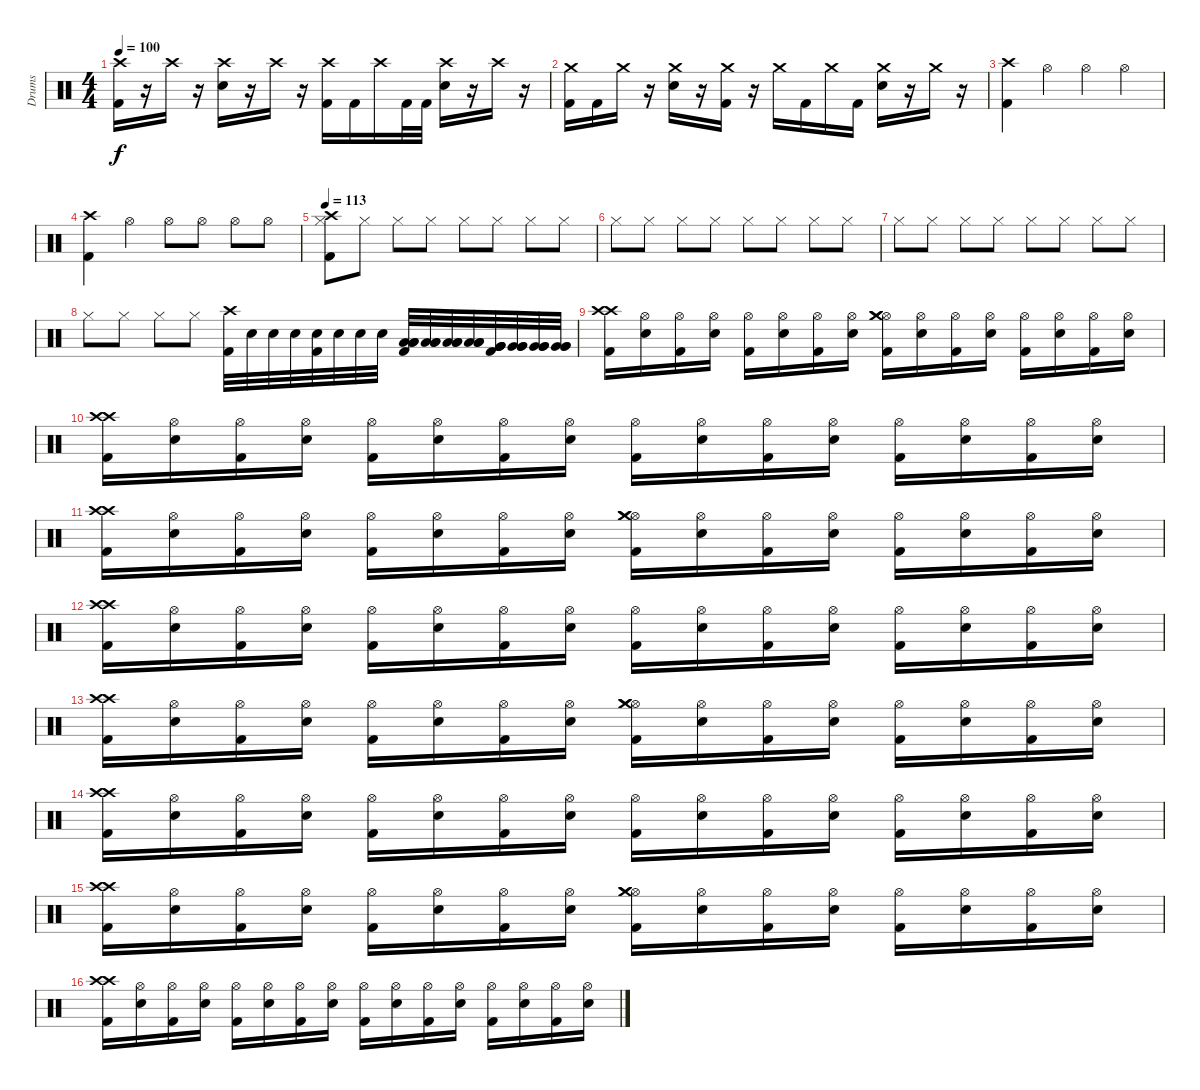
\track ("Drums" "Drums") {instrument percussion}
\staff {score}
\articulation defaults
\ts (4 4)
\tempo 100
\clef neutral
\ks c
("Crash high (hit)" "Kick (hit) 2").16{dy f} r.16 "Crash high (hit)".16 r.16 ("Crash high (hit)" "Snare (hit) 2").16 r.16 "Crash high (hit)".16 r.16 ("Crash high (hit)" "Kick (hit) 2").16 "Kick (hit) 2".16 "Crash high (hit)".16 "Kick (hit) 2".32 "Kick (hit) 2".32 ("Crash high (hit)" "Snare (hit) 2").16 r.16 "Crash high (hit)".16 r.16 |
("Crash medium (hit)" "Kick (hit) 2").16 "Kick (hit) 2".16 "Crash medium (hit)".16 r.16 ("Crash medium (hit)" "Snare (hit) 2").16 r.16 ("Crash medium (hit)" "Kick (hit) 2").16 r.16 "Crash medium (hit)".16 "Kick (hit) 2".16 "Crash medium (hit)".16 "Kick (hit) 2".16 ("Crash medium (hit)" "Snare (hit) 2").16 r.16 "Crash medium (hit)".16 r.16 |
("Kick (hit) 2" "Crash high (hit)").4 "Hi-Hat (open)".4 "Hi-Hat (open)".4 "Hi-Hat (open)".4 |
("Crash high (hit)" "Kick (hit) 2").4 "Hi-Hat (open)".4 "Hi-Hat (open)".8 "Hi-Hat (open)".8 "Hi-Hat (open)".8 "Hi-Hat (open)".8 |
\tempo 113
("Hi-Hat (closed)" "Crash high (hit)" "Kick (hit) 2").8 "Hi-Hat (closed)".8 "Hi-Hat (closed)".8 "Hi-Hat (closed)".8 "Hi-Hat (closed)".8 "Hi-Hat (closed)".8 "Hi-Hat (closed)".8 "Hi-Hat (closed)".8 |
"Hi-Hat (closed)".8 "Hi-Hat (closed)".8 "Hi-Hat (closed)".8 "Hi-Hat (closed)".8 "Hi-Hat (closed)".8 "Hi-Hat (closed)".8 "Hi-Hat (closed)".8 "Hi-Hat (closed)".8 |
"Hi-Hat (closed)".8 "Hi-Hat (closed)".8 "Hi-Hat (closed)".8 "Hi-Hat (closed)".8 "Hi-Hat (closed)".8 "Hi-Hat (closed)".8 "Hi-Hat (closed)".8 "Hi-Hat (closed)".8 |
"Hi-Hat (closed)".8 "Hi-Hat (closed)".8 "Hi-Hat (closed)".8 "Hi-Hat (closed)".8 ("Kick (hit) 2" "Crash high (hit)").32 "Snare (hit) 2".32 "Snare (hit) 2".32 "Snare (hit) 2".32 ("Snare (hit) 2" "Kick (hit) 2").32 "Snare (hit) 2".32 "Snare (hit) 2".32 "Snare (hit) 2".32 ("Low Tom (hit)" "Low Tom (hit)" "Kick (hit) 2" "Low Tom (hit)").32 ("Low Tom (hit)" "Low Tom (hit)" "Low Tom (hit)").32 ("Low Tom (hit)" "Low Tom (hit)" "Low Tom (hit)").32 ("Low Tom (hit)" "Low Tom (hit)" "Low Tom (hit)").32 ("Very Low Tom (hit)" "Very Low Tom (hit)" "Kick (hit) 2" "Very Low Tom (hit)").32 ("Very Low Tom (hit)" "Very Low Tom (hit)" "Very Low Tom (hit)").32 ("Very Low Tom (hit)" "Very Low Tom (hit)" "Very Low Tom (hit)").32 ("Very Low Tom (hit)" "Very Low Tom (hit)" "Very Low Tom (hit)").32 |
("Crash high (hit)" "Kick (hit) 2" "Crash high (hit)").16 ("Hi-Hat (open)" "Snare (hit) 2").16 ("Hi-Hat (open)" "Kick (hit) 2").16 ("Hi-Hat (open)" "Snare (hit) 2").16 ("Hi-Hat (open)" "Kick (hit) 2").16 ("Hi-Hat (open)" "Snare (hit) 2").16 ("Hi-Hat (open)" "Kick (hit) 2").16 ("Hi-Hat (open)" "Snare (hit) 2").16 ("Hi-Hat (open)" "Crash medium (hit)" "Kick (hit) 2" "Crash medium (hit)").16 ("Hi-Hat (open)" "Snare (hit) 2").16 ("Hi-Hat (open)" "Kick (hit) 2").16 ("Hi-Hat (open)" "Snare (hit) 2").16 ("Hi-Hat (open)" "Kick (hit) 2").16 ("Hi-Hat (open)" "Snare (hit) 2").16 ("Hi-Hat (open)" "Kick (hit) 2").16 ("Hi-Hat (open)" "Snare (hit) 2").16 |
("Crash high (hit)" "Kick (hit) 2" "Crash high (hit)").16 ("Hi-Hat (open)" "Snare (hit) 2").16 ("Hi-Hat (open)" "Kick (hit) 2").16 ("Hi-Hat (open)" "Snare (hit) 2").16 ("Hi-Hat (open)" "Kick (hit) 2").16 ("Hi-Hat (open)" "Snare (hit) 2").16 ("Hi-Hat (open)" "Kick (hit) 2").16 ("Hi-Hat (open)" "Snare (hit) 2").16 ("Hi-Hat (open)" "Kick (hit) 2").16 ("Hi-Hat (open)" "Snare (hit) 2").16 ("Hi-Hat (open)" "Kick (hit) 2").16 ("Hi-Hat (open)" "Snare (hit) 2").16 ("Hi-Hat (open)" "Kick (hit) 2").16 ("Hi-Hat (open)" "Snare (hit) 2").16 ("Hi-Hat (open)" "Kick (hit) 2").16 ("Hi-Hat (open)" "Snare (hit) 2").16 |
("Crash high (hit)" "Kick (hit) 2" "Crash high (hit)").16 ("Hi-Hat (open)" "Snare (hit) 2").16 ("Hi-Hat (open)" "Kick (hit) 2").16 ("Hi-Hat (open)" "Snare (hit) 2").16 ("Hi-Hat (open)" "Kick (hit) 2").16 ("Hi-Hat (open)" "Snare (hit) 2").16 ("Hi-Hat (open)" "Kick (hit) 2").16 ("Hi-Hat (open)" "Snare (hit) 2").16 ("Hi-Hat (open)" "Crash medium (hit)" "Kick (hit) 2" "Crash medium (hit)").16 ("Hi-Hat (open)" "Snare (hit) 2").16 ("Hi-Hat (open)" "Kick (hit) 2").16 ("Hi-Hat (open)" "Snare (hit) 2").16 ("Hi-Hat (open)" "Kick (hit) 2").16 ("Hi-Hat (open)" "Snare (hit) 2").16 ("Hi-Hat (open)" "Kick (hit) 2").16 ("Hi-Hat (open)" "Snare (hit) 2").16 |
("Crash high (hit)" "Kick (hit) 2" "Crash high (hit)").16 ("Hi-Hat (open)" "Snare (hit) 2").16 ("Hi-Hat (open)" "Kick (hit) 2").16 ("Hi-Hat (open)" "Snare (hit) 2").16 ("Hi-Hat (open)" "Kick (hit) 2").16 ("Hi-Hat (open)" "Snare (hit) 2").16 ("Hi-Hat (open)" "Kick (hit) 2").16 ("Hi-Hat (open)" "Snare (hit) 2").16 ("Hi-Hat (open)" "Kick (hit) 2").16 ("Hi-Hat (open)" "Snare (hit) 2").16 ("Hi-Hat (open)" "Kick (hit) 2").16 ("Hi-Hat (open)" "Snare (hit) 2").16 ("Hi-Hat (open)" "Kick (hit) 2").16 ("Hi-Hat (open)" "Snare (hit) 2").16 ("Hi-Hat (open)" "Kick (hit) 2").16 ("Hi-Hat (open)" "Snare (hit) 2").16 |
("Crash high (hit)" "Kick (hit) 2" "Crash high (hit)").16 ("Hi-Hat (open)" "Snare (hit) 2").16 ("Hi-Hat (open)" "Kick (hit) 2").16 ("Hi-Hat (open)" "Snare (hit) 2").16 ("Hi-Hat (open)" "Kick (hit) 2").16 ("Hi-Hat (open)" "Snare (hit) 2").16 ("Hi-Hat (open)" "Kick (hit) 2").16 ("Hi-Hat (open)" "Snare (hit) 2").16 ("Hi-Hat (open)" "Crash medium (hit)" "Kick (hit) 2" "Crash medium (hit)").16 ("Hi-Hat (open)" "Snare (hit) 2").16 ("Hi-Hat (open)" "Kick (hit) 2").16 ("Hi-Hat (open)" "Snare (hit) 2").16 ("Hi-Hat (open)" "Kick (hit) 2").16 ("Hi-Hat (open)" "Snare (hit) 2").16 ("Hi-Hat (open)" "Kick (hit) 2").16 ("Hi-Hat (open)" "Snare (hit) 2").16 |
("Crash high (hit)" "Kick (hit) 2" "Crash high (hit)").16 ("Hi-Hat (open)" "Snare (hit) 2").16 ("Hi-Hat (open)" "Kick (hit) 2").16 ("Hi-Hat (open)" "Snare (hit) 2").16 ("Hi-Hat (open)" "Kick (hit) 2").16 ("Hi-Hat (open)" "Snare (hit) 2").16 ("Hi-Hat (open)" "Kick (hit) 2").16 ("Hi-Hat (open)" "Snare (hit) 2").16 ("Hi-Hat (open)" "Kick (hit) 2").16 ("Hi-Hat (open)" "Snare (hit) 2").16 ("Hi-Hat (open)" "Kick (hit) 2").16 ("Hi-Hat (open)" "Snare (hit) 2").16 ("Hi-Hat (open)" "Kick (hit) 2").16 ("Hi-Hat (open)" "Snare (hit) 2").16 ("Hi-Hat (open)" "Kick (hit) 2").16 ("Hi-Hat (open)" "Snare (hit) 2").16 |
("Crash high (hit)" "Kick (hit) 2" "Crash high (hit)").16 ("Hi-Hat (open)" "Snare (hit) 2").16 ("Hi-Hat (open)" "Kick (hit) 2").16 ("Hi-Hat (open)" "Snare (hit) 2").16 ("Hi-Hat (open)" "Kick (hit) 2").16 ("Hi-Hat (open)" "Snare (hit) 2").16 ("Hi-Hat (open)" "Kick (hit) 2").16 ("Hi-Hat (open)" "Snare (hit) 2").16 ("Hi-Hat (open)" "Crash medium (hit)" "Kick (hit) 2" "Crash medium (hit)").16 ("Hi-Hat (open)" "Snare (hit) 2").16 ("Hi-Hat (open)" "Kick (hit) 2").16 ("Hi-Hat (open)" "Snare (hit) 2").16 ("Hi-Hat (open)" "Kick (hit) 2").16 ("Hi-Hat (open)" "Snare (hit) 2").16 ("Hi-Hat (open)" "Kick (hit) 2").16 ("Hi-Hat (open)" "Snare (hit) 2").16 |
("Crash high (hit)" "Kick (hit) 2" "Crash high (hit)").16 ("Hi-Hat (open)" "Snare (hit) 2").16 ("Hi-Hat (open)" "Kick (hit) 2").16 ("Hi-Hat (open)" "Snare (hit) 2").16 ("Hi-Hat (open)" "Kick (hit) 2").16 ("Hi-Hat (open)" "Snare (hit) 2").16 ("Hi-Hat (open)" "Kick (hit) 2").16 ("Hi-Hat (open)" "Snare (hit) 2").16 ("Hi-Hat (open)" "Kick (hit) 2").16 ("Hi-Hat (open)" "Snare (hit) 2").16 ("Hi-Hat (open)" "Kick (hit) 2").16 ("Hi-Hat (open)" "Snare (hit) 2").16 ("Hi-Hat (open)" "Kick (hit) 2").16 ("Hi-Hat (open)" "Snare (hit) 2").16 ("Hi-Hat (open)" "Kick (hit) 2").16 ("Hi-Hat (open)" "Snare (hit) 2").16
